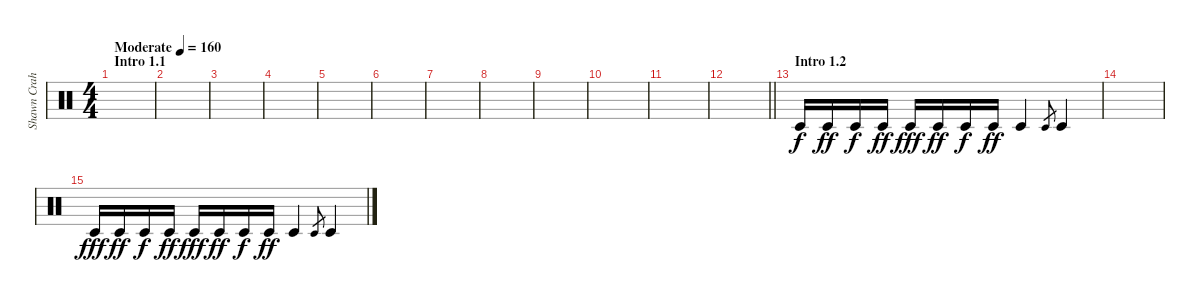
\track ("Shawn Crahan" "Shawn Crah") {instrument percussion}
\staff {score}
\articulation defaults
\ts (4 4)
\section ("" "Intro 1.1")
\tempo (160 "Moderate")
\clef neutral
\ks c
|
|
|
|
|
|
|
|
|
|
|
\barLineRight lightlight
|
\section ("" "Intro 1.2")
"Timbale low (hit)".16 "Timbale low (hit)".16{dy ff} "Timbale low (hit)".16{dy f} "Timbale low (hit)".16{dy ff} "Timbale low (hit)".16{dy fff} "Timbale low (hit)".16{dy ff} "Timbale low (hit)".16{dy f} "Timbale low (hit)".16{dy ff} "Timbale low (hit)".4 "Timbale low (hit)".8{gr} "Timbale low (hit)".4 |
|
"Timbale low (hit)".16{dy fff} "Timbale low (hit)".16{dy ff} "Timbale low (hit)".16{dy f} "Timbale low (hit)".16{dy ff} "Timbale low (hit)".16{dy fff} "Timbale low (hit)".16{dy ff} "Timbale low (hit)".16{dy f} "Timbale low (hit)".16{dy ff} "Timbale low (hit)".4 "Timbale low (hit)".8{gr} "Timbale low (hit)".4
